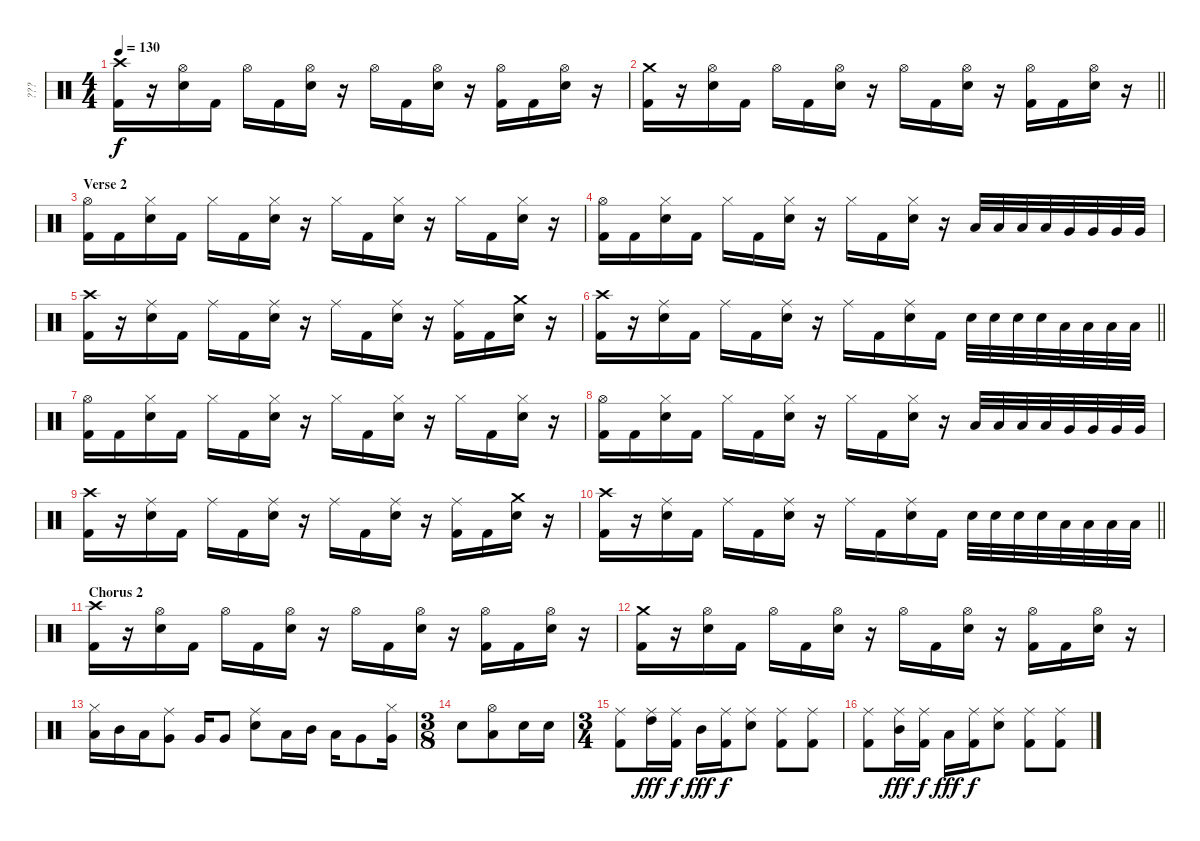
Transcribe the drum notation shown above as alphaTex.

\track ("???" "???") {instrument percussion}
\staff {score}
\articulation defaults
\ts (4 4)
\tempo 130
\clef neutral
\ks c
("Crash high (hit)" "Kick (hit) 2").16{dy f} r.16 ("Hi-Hat (open)" "Electric Snare (hit)").16 "Kick (hit) 2".16 "Hi-Hat (open)".16 "Kick (hit) 2".16 ("Hi-Hat (open)" "Electric Snare (hit)").16 r.16 "Hi-Hat (open)".16 "Kick (hit) 2".16 ("Hi-Hat (open)" "Electric Snare (hit)").16 r.16 ("Hi-Hat (open)" "Kick (hit) 2").16 "Kick (hit) 2".16 ("Hi-Hat (open)" "Electric Snare (hit)").16 r.16 |
\barLineRight lightlight
("Crash medium (hit)" "Kick (hit) 2").16 r.16 ("Hi-Hat (open)" "Electric Snare (hit)").16 "Kick (hit) 2".16 "Hi-Hat (open)".16 "Kick (hit) 2".16 ("Hi-Hat (open)" "Electric Snare (hit)").16 r.16 "Hi-Hat (open)".16 "Kick (hit) 2".16 ("Hi-Hat (open)" "Electric Snare (hit)").16 r.16 ("Hi-Hat (open)" "Kick (hit) 2").16 "Kick (hit) 2".16 ("Hi-Hat (open)" "Electric Snare (hit)").16 r.16 |
\section ("" "Verse 2")
("Hi-Hat (open)" "Kick (hit) 2").16 "Kick (hit) 2".16 ("Hi-Hat (closed)" "Electric Snare (hit)").16 "Kick (hit) 2".16 "Hi-Hat (closed)".16 "Kick (hit) 2".16 ("Hi-Hat (closed)" "Electric Snare (hit)").16 r.16 "Hi-Hat (closed)".16 "Kick (hit) 2".16 ("Hi-Hat (closed)" "Electric Snare (hit)").16 r.16 "Hi-Hat (closed)".16 "Kick (hit) 2".16 ("Hi-Hat (closed)" "Electric Snare (hit)").16 r.16 |
("Hi-Hat (open)" "Kick (hit) 2").16 "Kick (hit) 2".16 ("Hi-Hat (closed)" "Electric Snare (hit)").16 "Kick (hit) 2".16 "Hi-Hat (closed)".16 "Kick (hit) 2".16 ("Hi-Hat (closed)" "Electric Snare (hit)").16 r.16 "Hi-Hat (closed)".16 "Kick (hit) 2".16 ("Hi-Hat (closed)" "Electric Snare (hit)").16 r.16 "Low Tom (hit)".32 "Low Tom (hit)".32 "Low Tom (hit)".32 "Low Tom (hit)".32 "Very Low Tom (hit)".32 "Very Low Tom (hit)".32 "Very Low Tom (hit)".32 "Very Low Tom (hit)".32 |
("Crash high (hit)" "Kick (hit) 2").16 r.16 ("Ride (middle)" "Electric Snare (hit)").16 "Kick (hit) 2".16 "Ride (middle)".16 "Kick (hit) 2".16 ("Ride (middle)" "Electric Snare (hit)").16 r.16 "Ride (middle)".16 "Kick (hit) 2".16 ("Ride (middle)" "Electric Snare (hit)").16 r.16 ("Ride (middle)" "Kick (hit) 2").16 "Kick (hit) 2".16 ("Crash medium (hit)" "Electric Snare (hit)").16 r.16 |
\barLineRight lightlight
("Crash high (hit)" "Kick (hit) 2").16 r.16 ("Ride (middle)" "Electric Snare (hit)").16 "Kick (hit) 2".16 "Ride (middle)".16 "Kick (hit) 2".16 ("Ride (middle)" "Electric Snare (hit)").16 r.16 "Ride (middle)".16 "Kick (hit) 2".16 ("Ride (middle)" "Electric Snare (hit)").16 "Kick (hit) 2".16 "Electric Snare (hit)".32 "Electric Snare (hit)".32 "Electric Snare (hit)".32 "Electric Snare (hit)".32 "Low Tom (hit)".32 "Low Tom (hit)".32 "Low Tom (hit)".32 "Low Tom (hit)".32 |
("Hi-Hat (open)" "Kick (hit) 2").16 "Kick (hit) 2".16 ("Hi-Hat (closed)" "Electric Snare (hit)").16 "Kick (hit) 2".16 "Hi-Hat (closed)".16 "Kick (hit) 2".16 ("Hi-Hat (closed)" "Electric Snare (hit)").16 r.16 "Hi-Hat (closed)".16 "Kick (hit) 2".16 ("Hi-Hat (closed)" "Electric Snare (hit)").16 r.16 "Hi-Hat (closed)".16 "Kick (hit) 2".16 ("Hi-Hat (closed)" "Electric Snare (hit)").16 r.16 |
("Hi-Hat (open)" "Kick (hit) 2").16 "Kick (hit) 2".16 ("Hi-Hat (closed)" "Electric Snare (hit)").16 "Kick (hit) 2".16 "Hi-Hat (closed)".16 "Kick (hit) 2".16 ("Hi-Hat (closed)" "Electric Snare (hit)").16 r.16 "Hi-Hat (closed)".16 "Kick (hit) 2".16 ("Hi-Hat (closed)" "Electric Snare (hit)").16 r.16 "Low Tom (hit)".32 "Low Tom (hit)".32 "Low Tom (hit)".32 "Low Tom (hit)".32 "Very Low Tom (hit)".32 "Very Low Tom (hit)".32 "Very Low Tom (hit)".32 "Very Low Tom (hit)".32 |
("Crash high (hit)" "Kick (hit) 2").16 r.16 ("Ride (middle)" "Electric Snare (hit)").16 "Kick (hit) 2".16 "Ride (middle)".16 "Kick (hit) 2".16 ("Ride (middle)" "Electric Snare (hit)").16 r.16 "Ride (middle)".16 "Kick (hit) 2".16 ("Ride (middle)" "Electric Snare (hit)").16 r.16 ("Ride (middle)" "Kick (hit) 2").16 "Kick (hit) 2".16 ("Crash medium (hit)" "Electric Snare (hit)").16 r.16 |
\barLineRight lightlight
("Crash high (hit)" "Kick (hit) 2").16 r.16 ("Ride (middle)" "Electric Snare (hit)").16 "Kick (hit) 2".16 "Ride (middle)".16 "Kick (hit) 2".16 ("Ride (middle)" "Electric Snare (hit)").16 r.16 "Ride (middle)".16 "Kick (hit) 2".16 ("Ride (middle)" "Electric Snare (hit)").16 "Kick (hit) 2".16 "Electric Snare (hit)".32 "Electric Snare (hit)".32 "Electric Snare (hit)".32 "Electric Snare (hit)".32 "Low Tom (hit)".32 "Low Tom (hit)".32 "Low Tom (hit)".32 "Low Tom (hit)".32 |
\section ("" "Chorus 2")
("Crash high (hit)" "Kick (hit) 2").16 r.16 ("Hi-Hat (open)" "Electric Snare (hit)").16 "Kick (hit) 2".16 "Hi-Hat (open)".16 "Kick (hit) 2".16 ("Hi-Hat (open)" "Electric Snare (hit)").16 r.16 "Hi-Hat (open)".16 "Kick (hit) 2".16 ("Hi-Hat (open)" "Electric Snare (hit)").16 r.16 ("Hi-Hat (open)" "Kick (hit) 2").16 "Kick (hit) 2".16 ("Hi-Hat (open)" "Electric Snare (hit)").16 r.16 |
("Crash medium (hit)" "Kick (hit) 2").16 r.16 ("Hi-Hat (open)" "Electric Snare (hit)").16 "Kick (hit) 2".16 "Hi-Hat (open)".16 "Kick (hit) 2".16 ("Hi-Hat (open)" "Electric Snare (hit)").16 r.16 "Hi-Hat (open)".16 "Kick (hit) 2".16 ("Hi-Hat (open)" "Electric Snare (hit)").16 r.16 ("Hi-Hat (open)" "Kick (hit) 2").16 "Kick (hit) 2".16 ("Hi-Hat (open)" "Electric Snare (hit)").16 r.16 |
("Hi-Hat (closed)" "Low Tom (hit)").16 "Mid Tom (hit)".16 "Low Tom (hit)".16 ("Ride (middle)" "Very Low Tom (hit)").8 "Very Low Tom (hit)".16 "Very Low Tom (hit)".8 ("Ride (middle)" "Electric Snare (hit)").8 "Low Tom (hit)".16 "Mid Tom (hit)".16 "Low Tom (hit)".16 "Very Low Tom (hit)".8 ("Hi-Hat (closed)" "Very Low Tom (hit)").16 |
\ts (3 8)
"Electric Snare (hit)".8 ("Hi-Hat (open)" "Low Floor Tom (hit)").8 "Electric Snare (hit)".16 "Electric Snare (hit)".16 |
\ts (3 4)
("Ride (middle)" "Kick (hit) 2").8 ("Ride (middle)" "High Tom (hit)").16{dy fff} ("Ride (middle)" "Kick (hit) 2").16{dy f} "Mid Tom (hit)".16{dy fff} ("Ride (middle)" "Kick (hit) 2").16{dy f} ("Ride (middle)" "Electric Snare (hit)").8 ("Ride (middle)" "Kick (hit) 2").8 ("Ride (middle)" "Kick (hit) 2").8 |
("Ride (middle)" "Kick (hit) 2").8 ("Ride (middle)" "Mid Tom (hit)").16{dy fff} ("Ride (middle)" "Kick (hit) 2").16{dy f} "Low Tom (hit)".16{dy fff} ("Ride (middle)" "Kick (hit) 2").16{dy f} ("Ride (middle)" "Electric Snare (hit)").8 ("Ride (middle)" "Kick (hit) 2").8 ("Ride (middle)" "Kick (hit) 2").8
